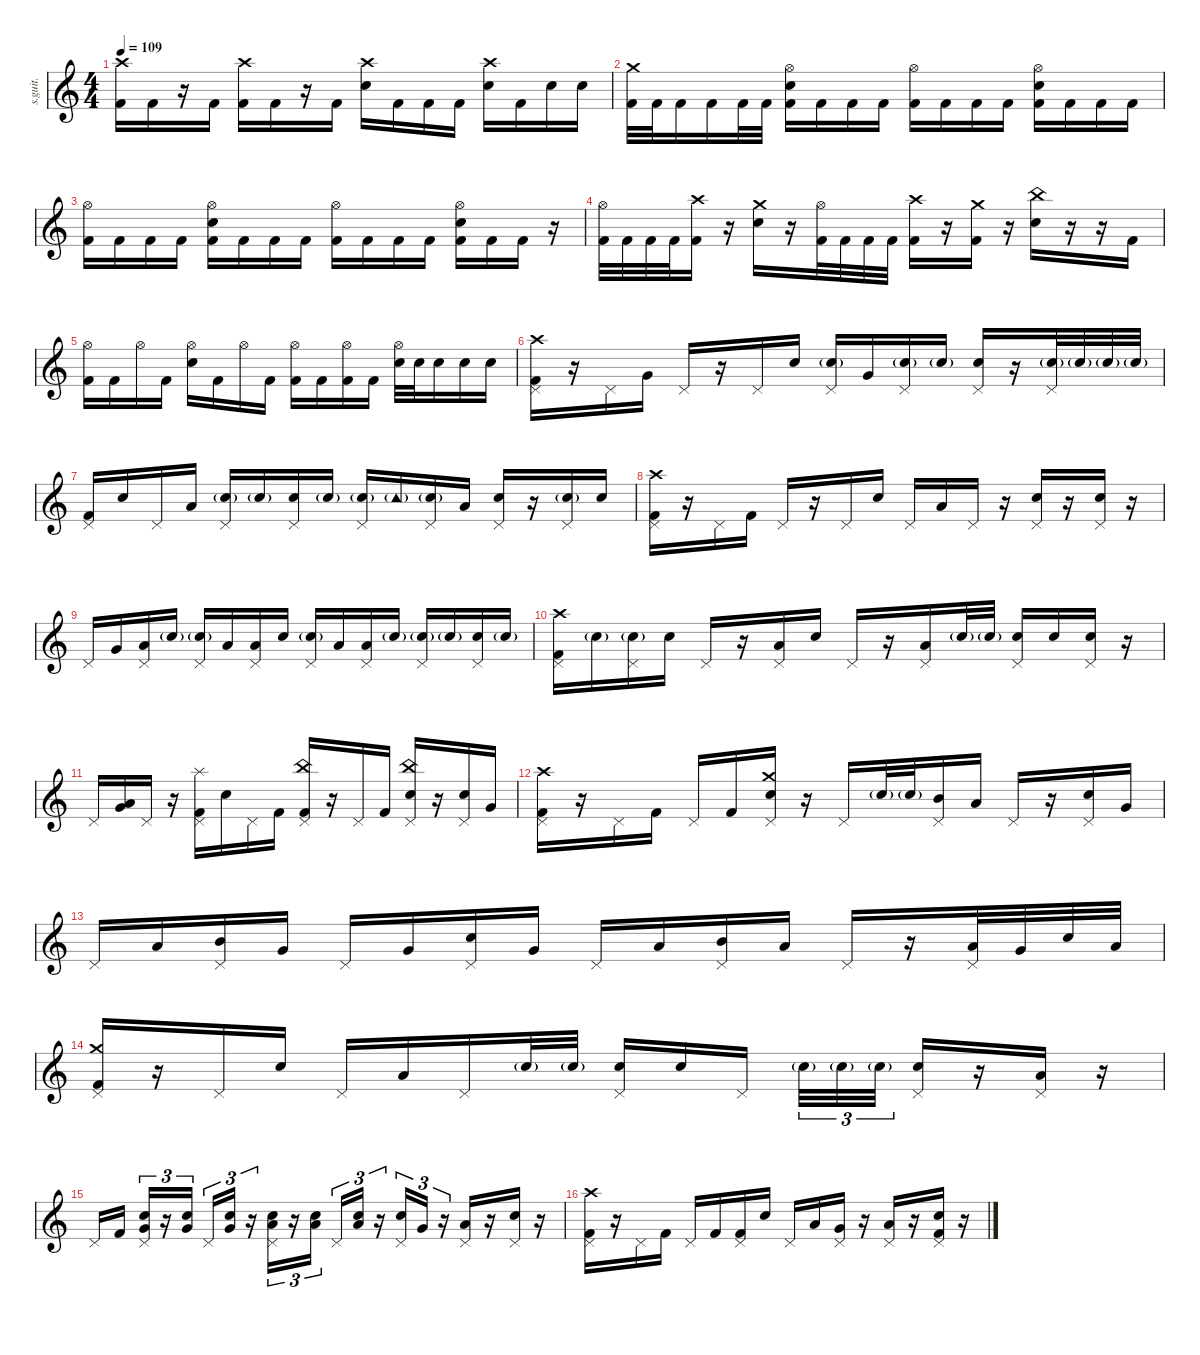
\defaultSystemsLayout 4
\hideDynamics
\bracketExtendMode nobrackets
\track ("Drumkit" "s.guit.") {instrument percussion}
\staff {score}
\articulation defaults
\ts (4 4)
\tempo 109
\clef g2
\ks c
("Crash high (hit)" "Kick (hit) 2").16{lyrics (0 "") lyrics (1 "") lyrics (2 "") lyrics (3 "") lyrics (4 "") dy f} "Kick (hit) 2".16{lyrics (0 "") lyrics (1 "") lyrics (2 "") lyrics (3 "") lyrics (4 "")} r.16 "Kick (hit) 2".16{lyrics (0 "") lyrics (1 "") lyrics (2 "") lyrics (3 "") lyrics (4 "")} ("Crash high (hit)" "Kick (hit) 2").16{lyrics (0 "") lyrics (1 "") lyrics (2 "") lyrics (3 "") lyrics (4 "")} "Kick (hit) 2".16{lyrics (0 "") lyrics (1 "") lyrics (2 "") lyrics (3 "") lyrics (4 "")} r.16 "Kick (hit) 2".16{lyrics (0 "") lyrics (1 "") lyrics (2 "") lyrics (3 "") lyrics (4 "")} ("Crash high (hit)" "Electric Snare (hit)").16{lyrics (0 "") lyrics (1 "") lyrics (2 "") lyrics (3 "") lyrics (4 "")} "Kick (hit) 2".16{lyrics (0 "") lyrics (1 "") lyrics (2 "") lyrics (3 "") lyrics (4 "")} "Kick (hit) 2".16{lyrics (0 "") lyrics (1 "") lyrics (2 "") lyrics (3 "") lyrics (4 "")} "Kick (hit) 2".16{lyrics (0 "") lyrics (1 "") lyrics (2 "") lyrics (3 "") lyrics (4 "")} ("Crash high (hit)" "Electric Snare (hit)").16{lyrics (0 "") lyrics (1 "") lyrics (2 "") lyrics (3 "") lyrics (4 "")} "Kick (hit) 2".16{lyrics (0 "") lyrics (1 "") lyrics (2 "") lyrics (3 "") lyrics (4 "")} "Electric Snare (hit)".16{lyrics (0 "") lyrics (1 "") lyrics (2 "") lyrics (3 "") lyrics (4 "")} "Electric Snare (hit)".16{lyrics (0 "") lyrics (1 "") lyrics (2 "") lyrics (3 "") lyrics (4 "")} |
("Crash medium (hit)" "Kick (hit) 2").32{lyrics (0 "") lyrics (1 "") lyrics (2 "") lyrics (3 "") lyrics (4 "")} "Kick (hit) 2".32{lyrics (0 "") lyrics (1 "") lyrics (2 "") lyrics (3 "") lyrics (4 "")} "Kick (hit) 2".16{lyrics (0 "") lyrics (1 "") lyrics (2 "") lyrics (3 "") lyrics (4 "")} "Kick (hit) 2".16{lyrics (0 "") lyrics (1 "") lyrics (2 "") lyrics (3 "") lyrics (4 "")} "Kick (hit) 2".32{lyrics (0 "") lyrics (1 "") lyrics (2 "") lyrics (3 "") lyrics (4 "")} "Kick (hit) 2".32{lyrics (0 "") lyrics (1 "") lyrics (2 "") lyrics (3 "") lyrics (4 "")} ("Hi-Hat (open)" "Electric Snare (hit)" "Kick (hit) 2").16{lyrics (0 "") lyrics (1 "") lyrics (2 "") lyrics (3 "") lyrics (4 "")} "Kick (hit) 2".16{lyrics (0 "") lyrics (1 "") lyrics (2 "") lyrics (3 "") lyrics (4 "")} "Kick (hit) 2".16{lyrics (0 "") lyrics (1 "") lyrics (2 "") lyrics (3 "") lyrics (4 "")} "Kick (hit) 2".16{lyrics (0 "") lyrics (1 "") lyrics (2 "") lyrics (3 "") lyrics (4 "")} ("Hi-Hat (open)" "Kick (hit) 2").16{lyrics (0 "") lyrics (1 "") lyrics (2 "") lyrics (3 "") lyrics (4 "")} "Kick (hit) 2".16{lyrics (0 "") lyrics (1 "") lyrics (2 "") lyrics (3 "") lyrics (4 "")} "Kick (hit) 2".16{lyrics (0 "") lyrics (1 "") lyrics (2 "") lyrics (3 "") lyrics (4 "")} "Kick (hit) 2".16{lyrics (0 "") lyrics (1 "") lyrics (2 "") lyrics (3 "") lyrics (4 "")} ("Hi-Hat (open)" "Electric Snare (hit)" "Kick (hit) 2").16{lyrics (0 "") lyrics (1 "") lyrics (2 "") lyrics (3 "") lyrics (4 "")} "Kick (hit) 2".16{lyrics (0 "") lyrics (1 "") lyrics (2 "") lyrics (3 "") lyrics (4 "")} "Kick (hit) 2".16{lyrics (0 "") lyrics (1 "") lyrics (2 "") lyrics (3 "") lyrics (4 "")} "Kick (hit) 2".16{lyrics (0 "") lyrics (1 "") lyrics (2 "") lyrics (3 "") lyrics (4 "")} |
("Hi-Hat (open)" "Kick (hit) 2").16{lyrics (0 "") lyrics (1 "") lyrics (2 "") lyrics (3 "") lyrics (4 "")} "Kick (hit) 2".16{lyrics (0 "") lyrics (1 "") lyrics (2 "") lyrics (3 "") lyrics (4 "")} "Kick (hit) 2".16{lyrics (0 "") lyrics (1 "") lyrics (2 "") lyrics (3 "") lyrics (4 "")} "Kick (hit) 2".16{lyrics (0 "") lyrics (1 "") lyrics (2 "") lyrics (3 "") lyrics (4 "")} ("Hi-Hat (open)" "Electric Snare (hit)" "Kick (hit) 2").16{lyrics (0 "") lyrics (1 "") lyrics (2 "") lyrics (3 "") lyrics (4 "")} "Kick (hit) 2".16{lyrics (0 "") lyrics (1 "") lyrics (2 "") lyrics (3 "") lyrics (4 "")} "Kick (hit) 2".16{lyrics (0 "") lyrics (1 "") lyrics (2 "") lyrics (3 "") lyrics (4 "")} "Kick (hit) 2".16{lyrics (0 "") lyrics (1 "") lyrics (2 "") lyrics (3 "") lyrics (4 "")} ("Hi-Hat (open)" "Kick (hit) 2").16{lyrics (0 "") lyrics (1 "") lyrics (2 "") lyrics (3 "") lyrics (4 "")} "Kick (hit) 2".16{lyrics (0 "") lyrics (1 "") lyrics (2 "") lyrics (3 "") lyrics (4 "")} "Kick (hit) 2".16{lyrics (0 "") lyrics (1 "") lyrics (2 "") lyrics (3 "") lyrics (4 "")} "Kick (hit) 2".16{lyrics (0 "") lyrics (1 "") lyrics (2 "") lyrics (3 "") lyrics (4 "")} ("Hi-Hat (open)" "Electric Snare (hit)" "Kick (hit) 2").16{lyrics (0 "") lyrics (1 "") lyrics (2 "") lyrics (3 "") lyrics (4 "")} "Kick (hit) 2".16{lyrics (0 "") lyrics (1 "") lyrics (2 "") lyrics (3 "") lyrics (4 "")} "Kick (hit) 2".16{lyrics (0 "") lyrics (1 "") lyrics (2 "") lyrics (3 "") lyrics (4 "")} r.16 |
("Hi-Hat (open)" "Kick (hit) 2").32{lyrics (0 "") lyrics (1 "") lyrics (2 "") lyrics (3 "") lyrics (4 "")} "Kick (hit) 2".32{lyrics (0 "") lyrics (1 "") lyrics (2 "") lyrics (3 "") lyrics (4 "")} "Kick (hit) 2".32{lyrics (0 "") lyrics (1 "") lyrics (2 "") lyrics (3 "") lyrics (4 "")} "Kick (hit) 2".32{lyrics (0 "") lyrics (1 "") lyrics (2 "") lyrics (3 "") lyrics (4 "")} ("Crash high (hit)" "Kick (hit) 2").16{lyrics (0 "") lyrics (1 "") lyrics (2 "") lyrics (3 "") lyrics (4 "")} r.16 ("Crash medium (hit)" "Electric Snare (hit)").16{lyrics (0 "") lyrics (1 "") lyrics (2 "") lyrics (3 "") lyrics (4 "")} r.16 ("Hi-Hat (open)" "Kick (hit) 2").32{lyrics (0 "") lyrics (1 "") lyrics (2 "") lyrics (3 "") lyrics (4 "")} "Kick (hit) 2".32{lyrics (0 "") lyrics (1 "") lyrics (2 "") lyrics (3 "") lyrics (4 "")} "Kick (hit) 2".32{lyrics (0 "") lyrics (1 "") lyrics (2 "") lyrics (3 "") lyrics (4 "")} "Kick (hit) 2".32{lyrics (0 "") lyrics (1 "") lyrics (2 "") lyrics (3 "") lyrics (4 "")} ("Crash high (hit)" "Kick (hit) 2").16{lyrics (0 "") lyrics (1 "") lyrics (2 "") lyrics (3 "") lyrics (4 "")} r.16 ("Crash medium (hit)" "Kick (hit) 2").16{lyrics (0 "") lyrics (1 "") lyrics (2 "") lyrics (3 "") lyrics (4 "")} r.16 ("China (hit)" "Electric Snare (hit)").16{lyrics (0 "") lyrics (1 "") lyrics (2 "") lyrics (3 "") lyrics (4 "")} r.16 r.16 "Kick (hit) 2".16{lyrics (0 "") lyrics (1 "") lyrics (2 "") lyrics (3 "") lyrics (4 "")} |
("Hi-Hat (open)" "Kick (hit) 2").16{lyrics (0 "") lyrics (1 "") lyrics (2 "") lyrics (3 "") lyrics (4 "")} "Kick (hit) 2".16{lyrics (0 "") lyrics (1 "") lyrics (2 "") lyrics (3 "") lyrics (4 "")} "Hi-Hat (open)".16{lyrics (0 "") lyrics (1 "") lyrics (2 "") lyrics (3 "") lyrics (4 "")} "Kick (hit) 2".16{lyrics (0 "") lyrics (1 "") lyrics (2 "") lyrics (3 "") lyrics (4 "")} ("Hi-Hat (open)" "Electric Snare (hit)").16{lyrics (0 "") lyrics (1 "") lyrics (2 "") lyrics (3 "") lyrics (4 "")} "Kick (hit) 2".16{lyrics (0 "") lyrics (1 "") lyrics (2 "") lyrics (3 "") lyrics (4 "")} "Hi-Hat (open)".16{lyrics (0 "") lyrics (1 "") lyrics (2 "") lyrics (3 "") lyrics (4 "")} "Kick (hit) 2".16{lyrics (0 "") lyrics (1 "") lyrics (2 "") lyrics (3 "") lyrics (4 "")} ("Hi-Hat (open)" "Kick (hit) 2").16{lyrics (0 "") lyrics (1 "") lyrics (2 "") lyrics (3 "") lyrics (4 "")} "Kick (hit) 2".16{lyrics (0 "") lyrics (1 "") lyrics (2 "") lyrics (3 "") lyrics (4 "")} ("Hi-Hat (open)" "Kick (hit) 2").16{lyrics (0 "") lyrics (1 "") lyrics (2 "") lyrics (3 "") lyrics (4 "")} "Kick (hit) 2".16{lyrics (0 "") lyrics (1 "") lyrics (2 "") lyrics (3 "") lyrics (4 "")} ("Hi-Hat (open)" "Electric Snare (hit)").32{lyrics (0 "") lyrics (1 "") lyrics (2 "") lyrics (3 "") lyrics (4 "")} "Electric Snare (hit)".32{lyrics (0 "") lyrics (1 "") lyrics (2 "") lyrics (3 "") lyrics (4 "")} "Electric Snare (hit)".16{lyrics (0 "") lyrics (1 "") lyrics (2 "") lyrics (3 "") lyrics (4 "")} "Electric Snare (hit)".16{lyrics (0 "") lyrics (1 "") lyrics (2 "") lyrics (3 "") lyrics (4 "")} "Electric Snare (hit)".16{lyrics (0 "") lyrics (1 "") lyrics (2 "") lyrics (3 "") lyrics (4 "")} |
("Crash high (hit)" "Pedal Hi-Hat (hit)" "Kick (hit) 2").16{lyrics (0 "") lyrics (1 "") lyrics (2 "") lyrics (3 "") lyrics (4 "")} r.16 "Pedal Hi-Hat (hit)".16{lyrics (0 "") lyrics (1 "") lyrics (2 "") lyrics (3 "") lyrics (4 "")} "Very Low Tom (hit)".16{lyrics (0 "") lyrics (1 "") lyrics (2 "") lyrics (3 "") lyrics (4 "")} "Pedal Hi-Hat (hit)".16{lyrics (0 "") lyrics (1 "") lyrics (2 "") lyrics (3 "") lyrics (4 "")} r.16 "Pedal Hi-Hat (hit)".16{lyrics (0 "") lyrics (1 "") lyrics (2 "") lyrics (3 "") lyrics (4 "")} "Electric Snare (hit)".16{lyrics (0 "") lyrics (1 "") lyrics (2 "") lyrics (3 "") lyrics (4 "")} ("Pedal Hi-Hat (hit)" "Electric Snare (hit)"{g}).16{lyrics (0 "") lyrics (1 "") lyrics (2 "") lyrics (3 "") lyrics (4 "")} "Very Low Tom (hit)".16{lyrics (0 "") lyrics (1 "") lyrics (2 "") lyrics (3 "") lyrics (4 "")} ("Pedal Hi-Hat (hit)" "Electric Snare (hit)"{g}).16{lyrics (0 "") lyrics (1 "") lyrics (2 "") lyrics (3 "") lyrics (4 "")} "Electric Snare (hit)"{g}.16{lyrics (0 "") lyrics (1 "") lyrics (2 "") lyrics (3 "") lyrics (4 "") dy mp} ("Pedal Hi-Hat (hit)" "Electric Snare (hit)").16{lyrics (0 "") lyrics (1 "") lyrics (2 "") lyrics (3 "") lyrics (4 "") dy f} r.16 ("Pedal Hi-Hat (hit)" "Electric Snare (hit)"{g}).32{lyrics (0 "") lyrics (1 "") lyrics (2 "") lyrics (3 "") lyrics (4 "")} "Electric Snare (hit)"{g}.32{lyrics (0 "") lyrics (1 "") lyrics (2 "") lyrics (3 "") lyrics (4 "") dy mp} "Electric Snare (hit)"{g}.32{lyrics (0 "") lyrics (1 "") lyrics (2 "") lyrics (3 "") lyrics (4 "")} "Electric Snare (hit)"{g}.32{lyrics (0 "") lyrics (1 "") lyrics (2 "") lyrics (3 "") lyrics (4 "")} |
("Pedal Hi-Hat (hit)" "Kick (hit) 2").16{lyrics (0 "") lyrics (1 "") lyrics (2 "") lyrics (3 "") lyrics (4 "") dy f} "Electric Snare (hit)".16{lyrics (0 "") lyrics (1 "") lyrics (2 "") lyrics (3 "") lyrics (4 "")} "Pedal Hi-Hat (hit)".16{lyrics (0 "") lyrics (1 "") lyrics (2 "") lyrics (3 "") lyrics (4 "")} "Low Tom (hit)".16{lyrics (0 "") lyrics (1 "") lyrics (2 "") lyrics (3 "") lyrics (4 "")} ("Pedal Hi-Hat (hit)" "Electric Snare (hit)"{g}).16{lyrics (0 "") lyrics (1 "") lyrics (2 "") lyrics (3 "") lyrics (4 "")} "Electric Snare (hit)"{g}.16{lyrics (0 "") lyrics (1 "") lyrics (2 "") lyrics (3 "") lyrics (4 "") dy mp} ("Pedal Hi-Hat (hit)" "Electric Snare (hit)").16{lyrics (0 "") lyrics (1 "") lyrics (2 "") lyrics (3 "") lyrics (4 "") dy f} "Electric Snare (hit)"{g}.16{lyrics (0 "") lyrics (1 "") lyrics (2 "") lyrics (3 "") lyrics (4 "") dy mp} ("Pedal Hi-Hat (hit)" "Electric Snare (hit)"{g}).16{lyrics (0 "") lyrics (1 "") lyrics (2 "") lyrics (3 "") lyrics (4 "")} "Tambourine (hit)"{g}.16{lyrics (0 "") lyrics (1 "") lyrics (2 "") lyrics (3 "") lyrics (4 "")} ("Pedal Hi-Hat (hit)" "Electric Snare (hit)"{g}).16{lyrics (0 "") lyrics (1 "") lyrics (2 "") lyrics (3 "") lyrics (4 "")} "Low Tom (hit)".16{lyrics (0 "") lyrics (1 "") lyrics (2 "") lyrics (3 "") lyrics (4 "") dy f} ("Pedal Hi-Hat (hit)" "Electric Snare (hit)").16{lyrics (0 "") lyrics (1 "") lyrics (2 "") lyrics (3 "") lyrics (4 "")} r.16 ("Pedal Hi-Hat (hit)" "Electric Snare (hit)"{g}).16{lyrics (0 "") lyrics (1 "") lyrics (2 "") lyrics (3 "") lyrics (4 "")} "Electric Snare (hit)".16{lyrics (0 "") lyrics (1 "") lyrics (2 "") lyrics (3 "") lyrics (4 "")} |
("Crash high (hit)" "Pedal Hi-Hat (hit)" "Kick (hit) 2").16{lyrics (0 "") lyrics (1 "") lyrics (2 "") lyrics (3 "") lyrics (4 "")} r.16 "Pedal Hi-Hat (hit)".16{lyrics (0 "") lyrics (1 "") lyrics (2 "") lyrics (3 "") lyrics (4 "")} "Kick (hit) 2".16{lyrics (0 "") lyrics (1 "") lyrics (2 "") lyrics (3 "") lyrics (4 "")} "Pedal Hi-Hat (hit)".16{lyrics (0 "") lyrics (1 "") lyrics (2 "") lyrics (3 "") lyrics (4 "")} r.16 "Pedal Hi-Hat (hit)".16{lyrics (0 "") lyrics (1 "") lyrics (2 "") lyrics (3 "") lyrics (4 "")} "Electric Snare (hit)".16{lyrics (0 "") lyrics (1 "") lyrics (2 "") lyrics (3 "") lyrics (4 "")} "Pedal Hi-Hat (hit)".16{lyrics (0 "") lyrics (1 "") lyrics (2 "") lyrics (3 "") lyrics (4 "")} "Low Tom (hit)".16{lyrics (0 "") lyrics (1 "") lyrics (2 "") lyrics (3 "") lyrics (4 "")} "Pedal Hi-Hat (hit)".16{lyrics (0 "") lyrics (1 "") lyrics (2 "") lyrics (3 "") lyrics (4 "")} r.16 ("Pedal Hi-Hat (hit)" "Electric Snare (hit)").16{lyrics (0 "") lyrics (1 "") lyrics (2 "") lyrics (3 "") lyrics (4 "")} r.16 ("Pedal Hi-Hat (hit)" "Electric Snare (hit)").16{lyrics (0 "") lyrics (1 "") lyrics (2 "") lyrics (3 "") lyrics (4 "")} r.16 |
"Pedal Hi-Hat (hit)".16{lyrics (0 "") lyrics (1 "") lyrics (2 "") lyrics (3 "") lyrics (4 "")} "Very Low Tom (hit)".16{lyrics (0 "") lyrics (1 "") lyrics (2 "") lyrics (3 "") lyrics (4 "")} ("Pedal Hi-Hat (hit)" "Low Floor Tom (hit)").16{lyrics (0 "") lyrics (1 "") lyrics (2 "") lyrics (3 "") lyrics (4 "")} "Electric Snare (hit)"{g}.16{lyrics (0 "") lyrics (1 "") lyrics (2 "") lyrics (3 "") lyrics (4 "") dy mp} ("Pedal Hi-Hat (hit)" "Electric Snare (hit)"{g}).16{lyrics (0 "") lyrics (1 "") lyrics (2 "") lyrics (3 "") lyrics (4 "")} "Low Floor Tom (hit)".16{lyrics (0 "") lyrics (1 "") lyrics (2 "") lyrics (3 "") lyrics (4 "") dy f} ("Pedal Hi-Hat (hit)" "Low Tom (hit)").16{lyrics (0 "") lyrics (1 "") lyrics (2 "") lyrics (3 "") lyrics (4 "")} "Electric Snare (hit)".16{lyrics (0 "") lyrics (1 "") lyrics (2 "") lyrics (3 "") lyrics (4 "")} ("Pedal Hi-Hat (hit)" "Electric Snare (hit)"{g}).16{lyrics (0 "") lyrics (1 "") lyrics (2 "") lyrics (3 "") lyrics (4 "")} "Low Tom (hit)".16{lyrics (0 "") lyrics (1 "") lyrics (2 "") lyrics (3 "") lyrics (4 "")} ("Pedal Hi-Hat (hit)" "Low Floor Tom (hit)").16{lyrics (0 "") lyrics (1 "") lyrics (2 "") lyrics (3 "") lyrics (4 "")} "Electric Snare (hit)"{g}.16{lyrics (0 "") lyrics (1 "") lyrics (2 "") lyrics (3 "") lyrics (4 "") dy mp} ("Pedal Hi-Hat (hit)" "Electric Snare (hit)"{g}).16{lyrics (0 "") lyrics (1 "") lyrics (2 "") lyrics (3 "") lyrics (4 "")} "Electric Snare (hit)"{g}.16{lyrics (0 "") lyrics (1 "") lyrics (2 "") lyrics (3 "") lyrics (4 "")} ("Pedal Hi-Hat (hit)" "Electric Snare (hit)").16{lyrics (0 "") lyrics (1 "") lyrics (2 "") lyrics (3 "") lyrics (4 "") dy f} "Electric Snare (hit)"{g}.16{lyrics (0 "") lyrics (1 "") lyrics (2 "") lyrics (3 "") lyrics (4 "") dy mp} |
("Crash high (hit)" "Pedal Hi-Hat (hit)" "Kick (hit) 2").16{lyrics (0 "") lyrics (1 "") lyrics (2 "") lyrics (3 "") lyrics (4 "") dy f} "Electric Snare (hit)"{g}.16{lyrics (0 "") lyrics (1 "") lyrics (2 "") lyrics (3 "") lyrics (4 "") dy mp} ("Pedal Hi-Hat (hit)" "Electric Snare (hit)"{g}).16{lyrics (0 "") lyrics (1 "") lyrics (2 "") lyrics (3 "") lyrics (4 "")} "Electric Snare (hit)".16{lyrics (0 "") lyrics (1 "") lyrics (2 "") lyrics (3 "") lyrics (4 "") dy f} "Pedal Hi-Hat (hit)".16{lyrics (0 "") lyrics (1 "") lyrics (2 "") lyrics (3 "") lyrics (4 "")} r.16 ("Pedal Hi-Hat (hit)" "Low Tom (hit)").16{lyrics (0 "") lyrics (1 "") lyrics (2 "") lyrics (3 "") lyrics (4 "")} "Electric Snare (hit)".16{lyrics (0 "") lyrics (1 "") lyrics (2 "") lyrics (3 "") lyrics (4 "")} "Pedal Hi-Hat (hit)".16{lyrics (0 "") lyrics (1 "") lyrics (2 "") lyrics (3 "") lyrics (4 "")} r.16 ("Pedal Hi-Hat (hit)" "Low Tom (hit)").16{lyrics (0 "") lyrics (1 "") lyrics (2 "") lyrics (3 "") lyrics (4 "")} "Electric Snare (hit)"{g}.32{lyrics (0 "") lyrics (1 "") lyrics (2 "") lyrics (3 "") lyrics (4 "") dy mp} "Electric Snare (hit)"{g}.32{lyrics (0 "") lyrics (1 "") lyrics (2 "") lyrics (3 "") lyrics (4 "")} ("Pedal Hi-Hat (hit)" "Electric Snare (hit)").16{lyrics (0 "") lyrics (1 "") lyrics (2 "") lyrics (3 "") lyrics (4 "") dy f} "Electric Snare (hit)".16{lyrics (0 "") lyrics (1 "") lyrics (2 "") lyrics (3 "") lyrics (4 "")} ("Pedal Hi-Hat (hit)" "Electric Snare (hit)").16{lyrics (0 "") lyrics (1 "") lyrics (2 "") lyrics (3 "") lyrics (4 "")} r.16 |
"Pedal Hi-Hat (hit)".16{lyrics (0 "") lyrics (1 "") lyrics (2 "") lyrics (3 "") lyrics (4 "")} ("Very Low Tom (hit)" "Low Floor Tom (hit)").16{lyrics (0 "") lyrics (1 "") lyrics (2 "") lyrics (3 "") lyrics (4 "")} "Pedal Hi-Hat (hit)".16{lyrics (0 "") lyrics (1 "") lyrics (2 "") lyrics (3 "") lyrics (4 "")} r.16 ("Splash (hit)" "Pedal Hi-Hat (hit)" "Kick (hit) 2").16{lyrics (0 "") lyrics (1 "") lyrics (2 "") lyrics (3 "") lyrics (4 "")} "Electric Snare (hit)".16{lyrics (0 "") lyrics (1 "") lyrics (2 "") lyrics (3 "") lyrics (4 "")} "Pedal Hi-Hat (hit)".16{lyrics (0 "") lyrics (1 "") lyrics (2 "") lyrics (3 "") lyrics (4 "")} "Kick (hit) 2".16{lyrics (0 "") lyrics (1 "") lyrics (2 "") lyrics (3 "") lyrics (4 "")} ("China (hit)" "Pedal Hi-Hat (hit)" "Kick (hit) 2").16{lyrics (0 "") lyrics (1 "") lyrics (2 "") lyrics (3 "") lyrics (4 "")} r.16 "Pedal Hi-Hat (hit)".16{lyrics (0 "") lyrics (1 "") lyrics (2 "") lyrics (3 "") lyrics (4 "")} "Kick (hit) 2".16{lyrics (0 "") lyrics (1 "") lyrics (2 "") lyrics (3 "") lyrics (4 "")} ("China (hit)" "Pedal Hi-Hat (hit)" "Electric Snare (hit)").16{lyrics (0 "") lyrics (1 "") lyrics (2 "") lyrics (3 "") lyrics (4 "")} r.16 ("Pedal Hi-Hat (hit)" "Electric Snare (hit)").16{lyrics (0 "") lyrics (1 "") lyrics (2 "") lyrics (3 "") lyrics (4 "")} "Very Low Tom (hit)".16{lyrics (0 "") lyrics (1 "") lyrics (2 "") lyrics (3 "") lyrics (4 "")} |
("Crash high (hit)" "Pedal Hi-Hat (hit)" "Kick (hit) 2").16{lyrics (0 "") lyrics (1 "") lyrics (2 "") lyrics (3 "") lyrics (4 "")} r.16 "Pedal Hi-Hat (hit)".16{lyrics (0 "") lyrics (1 "") lyrics (2 "") lyrics (3 "") lyrics (4 "")} "Kick (hit) 2".16{lyrics (0 "") lyrics (1 "") lyrics (2 "") lyrics (3 "") lyrics (4 "")} "Pedal Hi-Hat (hit)".16{lyrics (0 "") lyrics (1 "") lyrics (2 "") lyrics (3 "") lyrics (4 "")} "Kick (hit) 2".16{lyrics (0 "") lyrics (1 "") lyrics (2 "") lyrics (3 "") lyrics (4 "")} ("Crash medium (hit)" "Pedal Hi-Hat (hit)" "Electric Snare (hit)").16{lyrics (0 "") lyrics (1 "") lyrics (2 "") lyrics (3 "") lyrics (4 "")} r.16 "Pedal Hi-Hat (hit)".16{lyrics (0 "") lyrics (1 "") lyrics (2 "") lyrics (3 "") lyrics (4 "")} "Electric Snare (hit)"{g}.32{lyrics (0 "") lyrics (1 "") lyrics (2 "") lyrics (3 "") lyrics (4 "") dy mp} "Electric Snare (hit)"{g}.32{lyrics (0 "") lyrics (1 "") lyrics (2 "") lyrics (3 "") lyrics (4 "")} ("Mid Tom (hit)" "Pedal Hi-Hat (hit)").16{lyrics (0 "") lyrics (1 "") lyrics (2 "") lyrics (3 "") lyrics (4 "") dy f} "Low Tom (hit)".16{lyrics (0 "") lyrics (1 "") lyrics (2 "") lyrics (3 "") lyrics (4 "")} "Pedal Hi-Hat (hit)".16{lyrics (0 "") lyrics (1 "") lyrics (2 "") lyrics (3 "") lyrics (4 "")} r.16 ("Pedal Hi-Hat (hit)" "Electric Snare (hit)").16{lyrics (0 "") lyrics (1 "") lyrics (2 "") lyrics (3 "") lyrics (4 "")} "Very Low Tom (hit)".16{lyrics (0 "") lyrics (1 "") lyrics (2 "") lyrics (3 "") lyrics (4 "")} |
"Pedal Hi-Hat (hit)".16{lyrics (0 "") lyrics (1 "") lyrics (2 "") lyrics (3 "") lyrics (4 "")} "Low Tom (hit)".16{lyrics (0 "") lyrics (1 "") lyrics (2 "") lyrics (3 "") lyrics (4 "")} ("Mid Tom (hit)" "Pedal Hi-Hat (hit)").16{lyrics (0 "") lyrics (1 "") lyrics (2 "") lyrics (3 "") lyrics (4 "")} "Very Low Tom (hit)".16{lyrics (0 "") lyrics (1 "") lyrics (2 "") lyrics (3 "") lyrics (4 "")} "Pedal Hi-Hat (hit)".16{lyrics (0 "") lyrics (1 "") lyrics (2 "") lyrics (3 "") lyrics (4 "")} "Very Low Tom (hit)".16{lyrics (0 "") lyrics (1 "") lyrics (2 "") lyrics (3 "") lyrics (4 "")} ("Pedal Hi-Hat (hit)" "Electric Snare (hit)").16{lyrics (0 "") lyrics (1 "") lyrics (2 "") lyrics (3 "") lyrics (4 "")} "Very Low Tom (hit)".16{lyrics (0 "") lyrics (1 "") lyrics (2 "") lyrics (3 "") lyrics (4 "")} "Pedal Hi-Hat (hit)".16{lyrics (0 "") lyrics (1 "") lyrics (2 "") lyrics (3 "") lyrics (4 "")} "Low Floor Tom (hit)".16{lyrics (0 "") lyrics (1 "") lyrics (2 "") lyrics (3 "") lyrics (4 "")} ("Mid Tom (hit)" "Pedal Hi-Hat (hit)").16{lyrics (0 "") lyrics (1 "") lyrics (2 "") lyrics (3 "") lyrics (4 "")} "Low Floor Tom (hit)".16{lyrics (0 "") lyrics (1 "") lyrics (2 "") lyrics (3 "") lyrics (4 "")} "Pedal Hi-Hat (hit)".16{lyrics (0 "") lyrics (1 "") lyrics (2 "") lyrics (3 "") lyrics (4 "")} r.16 ("Pedal Hi-Hat (hit)" "Low Floor Tom (hit)").32{lyrics (0 "") lyrics (1 "") lyrics (2 "") lyrics (3 "") lyrics (4 "")} "Very Low Tom (hit)".32{lyrics (0 "") lyrics (1 "") lyrics (2 "") lyrics (3 "") lyrics (4 "")} "Electric Snare (hit)".32{lyrics (0 "") lyrics (1 "") lyrics (2 "") lyrics (3 "") lyrics (4 "")} "Low Floor Tom (hit)".32{lyrics (0 "") lyrics (1 "") lyrics (2 "") lyrics (3 "") lyrics (4 "")} |
("Crash medium (hit)" "Pedal Hi-Hat (hit)" "Kick (hit) 2").16{lyrics (0 "") lyrics (1 "") lyrics (2 "") lyrics (3 "") lyrics (4 "")} r.16 "Pedal Hi-Hat (hit)".16{lyrics (0 "") lyrics (1 "") lyrics (2 "") lyrics (3 "") lyrics (4 "")} "Electric Snare (hit)".16{lyrics (0 "") lyrics (1 "") lyrics (2 "") lyrics (3 "") lyrics (4 "")} "Pedal Hi-Hat (hit)".16{lyrics (0 "") lyrics (1 "") lyrics (2 "") lyrics (3 "") lyrics (4 "")} "Low Tom (hit)".16{lyrics (0 "") lyrics (1 "") lyrics (2 "") lyrics (3 "") lyrics (4 "")} "Pedal Hi-Hat (hit)".16{lyrics (0 "") lyrics (1 "") lyrics (2 "") lyrics (3 "") lyrics (4 "")} "Electric Snare (hit)"{g}.32{lyrics (0 "") lyrics (1 "") lyrics (2 "") lyrics (3 "") lyrics (4 "") dy mp} "Electric Snare (hit)"{g}.32{lyrics (0 "") lyrics (1 "") lyrics (2 "") lyrics (3 "") lyrics (4 "")} ("Pedal Hi-Hat (hit)" "Electric Snare (hit)").16{lyrics (0 "") lyrics (1 "") lyrics (2 "") lyrics (3 "") lyrics (4 "") dy f} "Electric Snare (hit)".16{lyrics (0 "") lyrics (1 "") lyrics (2 "") lyrics (3 "") lyrics (4 "")} "Pedal Hi-Hat (hit)".16{lyrics (0 "") lyrics (1 "") lyrics (2 "") lyrics (3 "") lyrics (4 "")} "Electric Snare (hit)"{g}.32{tu (3 2) lyrics (0 "") lyrics (1 "") lyrics (2 "") lyrics (3 "") lyrics (4 "") dy mp} "Electric Snare (hit)"{g}.32{tu (3 2) lyrics (0 "") lyrics (1 "") lyrics (2 "") lyrics (3 "") lyrics (4 "")} "Electric Snare (hit)"{g}.32{tu (3 2) lyrics (0 "") lyrics (1 "") lyrics (2 "") lyrics (3 "") lyrics (4 "")} ("Pedal Hi-Hat (hit)" "Electric Snare (hit)").16{lyrics (0 "") lyrics (1 "") lyrics (2 "") lyrics (3 "") lyrics (4 "") dy f} r.16 ("Pedal Hi-Hat (hit)" "Low Tom (hit)").16{lyrics (0 "") lyrics (1 "") lyrics (2 "") lyrics (3 "") lyrics (4 "")} r.16 |
"Pedal Hi-Hat (hit)".16{lyrics (0 "") lyrics (1 "") lyrics (2 "") lyrics (3 "") lyrics (4 "")} "Kick (hit) 2".16{lyrics (0 "") lyrics (1 "") lyrics (2 "") lyrics (3 "") lyrics (4 "")} ("Pedal Hi-Hat (hit)" "Very Low Tom (hit)" "Electric Snare (hit)").16{tu (3 2) lyrics (0 "") lyrics (1 "") lyrics (2 "") lyrics (3 "") lyrics (4 "")} r.16{tu (3 2)} ("Very Low Tom (hit)" "Electric Snare (hit)").16{tu (3 2) lyrics (0 "") lyrics (1 "") lyrics (2 "") lyrics (3 "") lyrics (4 "")} "Pedal Hi-Hat (hit)".16{tu (3 2) lyrics (0 "") lyrics (1 "") lyrics (2 "") lyrics (3 "") lyrics (4 "")} ("Very Low Tom (hit)" "Electric Snare (hit)").16{tu (3 2) lyrics (0 "") lyrics (1 "") lyrics (2 "") lyrics (3 "") lyrics (4 "")} r.16{tu (3 2)} ("Pedal Hi-Hat (hit)" "Low Floor Tom (hit)" "Electric Snare (hit)").16{tu (3 2) lyrics (0 "") lyrics (1 "") lyrics (2 "") lyrics (3 "") lyrics (4 "")} r.16{tu (3 2)} ("Low Floor Tom (hit)" "Electric Snare (hit)").16{tu (3 2) lyrics (0 "") lyrics (1 "") lyrics (2 "") lyrics (3 "") lyrics (4 "")} "Pedal Hi-Hat (hit)".16{tu (3 2) lyrics (0 "") lyrics (1 "") lyrics (2 "") lyrics (3 "") lyrics (4 "")} ("Low Floor Tom (hit)" "Electric Snare (hit)").16{tu (3 2) lyrics (0 "") lyrics (1 "") lyrics (2 "") lyrics (3 "") lyrics (4 "")} r.16{tu (3 2)} ("Pedal Hi-Hat (hit)" "Electric Snare (hit)").16{tu (3 2) lyrics (0 "") lyrics (1 "") lyrics (2 "") lyrics (3 "") lyrics (4 "")} "Very Low Tom (hit)".16{tu (3 2) lyrics (0 "") lyrics (1 "") lyrics (2 "") lyrics (3 "") lyrics (4 "")} r.16{tu (3 2)} ("Pedal Hi-Hat (hit)" "Low Floor Tom (hit)").16{lyrics (0 "") lyrics (1 "") lyrics (2 "") lyrics (3 "") lyrics (4 "")} r.16 ("Pedal Hi-Hat (hit)" "Electric Snare (hit)").16{lyrics (0 "") lyrics (1 "") lyrics (2 "") lyrics (3 "") lyrics (4 "")} r.16 |
("Crash high (hit)" "Pedal Hi-Hat (hit)" "Kick (hit) 2").16{lyrics (0 "") lyrics (1 "") lyrics (2 "") lyrics (3 "") lyrics (4 "")} r.16 "Pedal Hi-Hat (hit)".16{lyrics (0 "") lyrics (1 "") lyrics (2 "") lyrics (3 "") lyrics (4 "")} "Kick (hit) 2".16{lyrics (0 "") lyrics (1 "") lyrics (2 "") lyrics (3 "") lyrics (4 "")} "Pedal Hi-Hat (hit)".16{lyrics (0 "") lyrics (1 "") lyrics (2 "") lyrics (3 "") lyrics (4 "")} "Kick (hit) 2".16{lyrics (0 "") lyrics (1 "") lyrics (2 "") lyrics (3 "") lyrics (4 "")} ("Pedal Hi-Hat (hit)" "Kick (hit) 2").16{lyrics (0 "") lyrics (1 "") lyrics (2 "") lyrics (3 "") lyrics (4 "")} "Electric Snare (hit)".16{lyrics (0 "") lyrics (1 "") lyrics (2 "") lyrics (3 "") lyrics (4 "")} "Pedal Hi-Hat (hit)".16{lyrics (0 "") lyrics (1 "") lyrics (2 "") lyrics (3 "") lyrics (4 "")} "Low Tom (hit)".16{lyrics (0 "") lyrics (1 "") lyrics (2 "") lyrics (3 "") lyrics (4 "")} ("Pedal Hi-Hat (hit)" "Very Low Tom (hit)").16{lyrics (0 "") lyrics (1 "") lyrics (2 "") lyrics (3 "") lyrics (4 "")} r.16 ("Pedal Hi-Hat (hit)" "Low Floor Tom (hit)").16{lyrics (0 "") lyrics (1 "") lyrics (2 "") lyrics (3 "") lyrics (4 "")} r.16 ("Pedal Hi-Hat (hit)" "Electric Snare (hit)" "Kick (hit) 2").16{lyrics (0 "") lyrics (1 "") lyrics (2 "") lyrics (3 "") lyrics (4 "")} r.16
